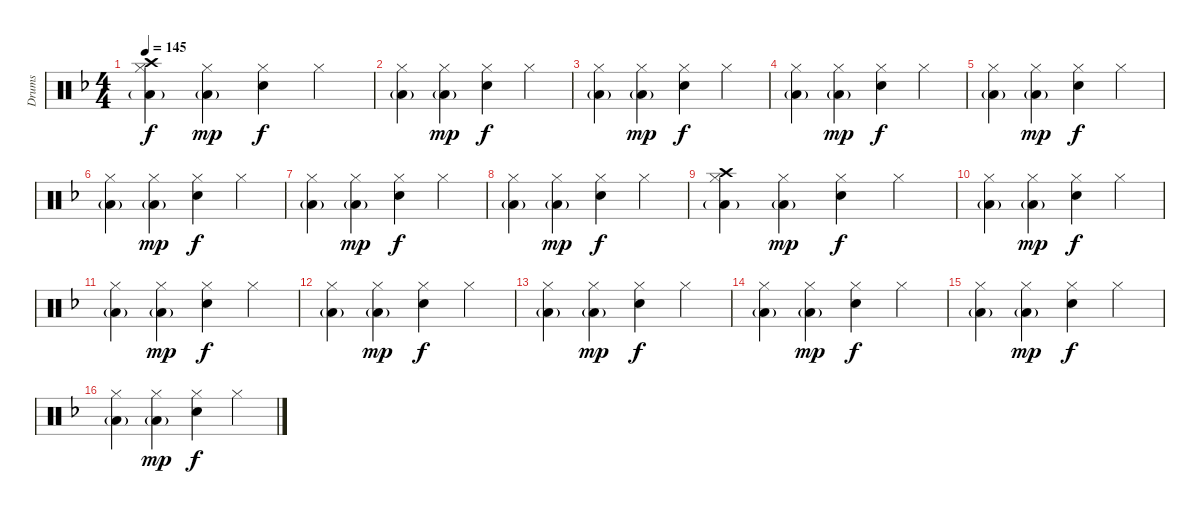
\track ("Drums" "Drums") {instrument percussion}
\staff {score}
\articulation defaults
\ts (4 4)
\tempo 145
\clef neutral
\ks f
("Hi-Hat (closed)" "Low Tom (hit)"{g} "Crash high (hit)").4{dy f} ("Hi-Hat (closed)" "Low Tom (hit)"{g}).4{dy mp} ("Hi-Hat (closed)" "Snare (hit) 2").4{dy f} "Hi-Hat (closed)".4 |
("Hi-Hat (closed)" "Low Tom (hit)"{g}).4 ("Hi-Hat (closed)" "Low Tom (hit)"{g}).4{dy mp} ("Hi-Hat (closed)" "Snare (hit) 2").4{dy f} "Hi-Hat (closed)".4 |
("Hi-Hat (closed)" "Low Tom (hit)"{g}).4 ("Hi-Hat (closed)" "Low Tom (hit)"{g}).4{dy mp} ("Hi-Hat (closed)" "Snare (hit) 2").4{dy f} "Hi-Hat (closed)".4 |
("Hi-Hat (closed)" "Low Tom (hit)"{g}).4 ("Hi-Hat (closed)" "Low Tom (hit)"{g}).4{dy mp} ("Hi-Hat (closed)" "Snare (hit) 2").4{dy f} "Hi-Hat (closed)".4 |
("Hi-Hat (closed)" "Low Tom (hit)"{g}).4 ("Hi-Hat (closed)" "Low Tom (hit)"{g}).4{dy mp} ("Hi-Hat (closed)" "Snare (hit) 2").4{dy f} "Hi-Hat (closed)".4 |
("Hi-Hat (closed)" "Low Tom (hit)"{g}).4 ("Hi-Hat (closed)" "Low Tom (hit)"{g}).4{dy mp} ("Hi-Hat (closed)" "Snare (hit) 2").4{dy f} "Hi-Hat (closed)".4 |
("Hi-Hat (closed)" "Low Tom (hit)"{g}).4 ("Hi-Hat (closed)" "Low Tom (hit)"{g}).4{dy mp} ("Hi-Hat (closed)" "Snare (hit) 2").4{dy f} "Hi-Hat (closed)".4 |
("Hi-Hat (closed)" "Low Tom (hit)"{g}).4 ("Hi-Hat (closed)" "Low Tom (hit)"{g}).4{dy mp} ("Hi-Hat (closed)" "Snare (hit) 2").4{dy f} "Hi-Hat (closed)".4 |
("Hi-Hat (closed)" "Low Tom (hit)"{g} "Crash high (hit)").4 ("Hi-Hat (closed)" "Low Tom (hit)"{g}).4{dy mp} ("Hi-Hat (closed)" "Snare (hit) 2").4{dy f} "Hi-Hat (closed)".4 |
("Hi-Hat (closed)" "Low Tom (hit)"{g}).4 ("Hi-Hat (closed)" "Low Tom (hit)"{g}).4{dy mp} ("Hi-Hat (closed)" "Snare (hit) 2").4{dy f} "Hi-Hat (closed)".4 |
("Hi-Hat (closed)" "Low Tom (hit)"{g}).4 ("Hi-Hat (closed)" "Low Tom (hit)"{g}).4{dy mp} ("Hi-Hat (closed)" "Snare (hit) 2").4{dy f} "Hi-Hat (closed)".4 |
("Hi-Hat (closed)" "Low Tom (hit)"{g}).4 ("Hi-Hat (closed)" "Low Tom (hit)"{g}).4{dy mp} ("Hi-Hat (closed)" "Snare (hit) 2").4{dy f} "Hi-Hat (closed)".4 |
("Hi-Hat (closed)" "Low Tom (hit)"{g}).4 ("Hi-Hat (closed)" "Low Tom (hit)"{g}).4{dy mp} ("Hi-Hat (closed)" "Snare (hit) 2").4{dy f} "Hi-Hat (closed)".4 |
("Hi-Hat (closed)" "Low Tom (hit)"{g}).4 ("Hi-Hat (closed)" "Low Tom (hit)"{g}).4{dy mp} ("Hi-Hat (closed)" "Snare (hit) 2").4{dy f} "Hi-Hat (closed)".4 |
("Hi-Hat (closed)" "Low Tom (hit)"{g}).4 ("Hi-Hat (closed)" "Low Tom (hit)"{g}).4{dy mp} ("Hi-Hat (closed)" "Snare (hit) 2").4{dy f} "Hi-Hat (closed)".4 |
("Hi-Hat (closed)" "Low Tom (hit)"{g}).4 ("Hi-Hat (closed)" "Low Tom (hit)"{g}).4{dy mp} ("Hi-Hat (closed)" "Snare (hit) 2").4{dy f} "Hi-Hat (closed)".4
